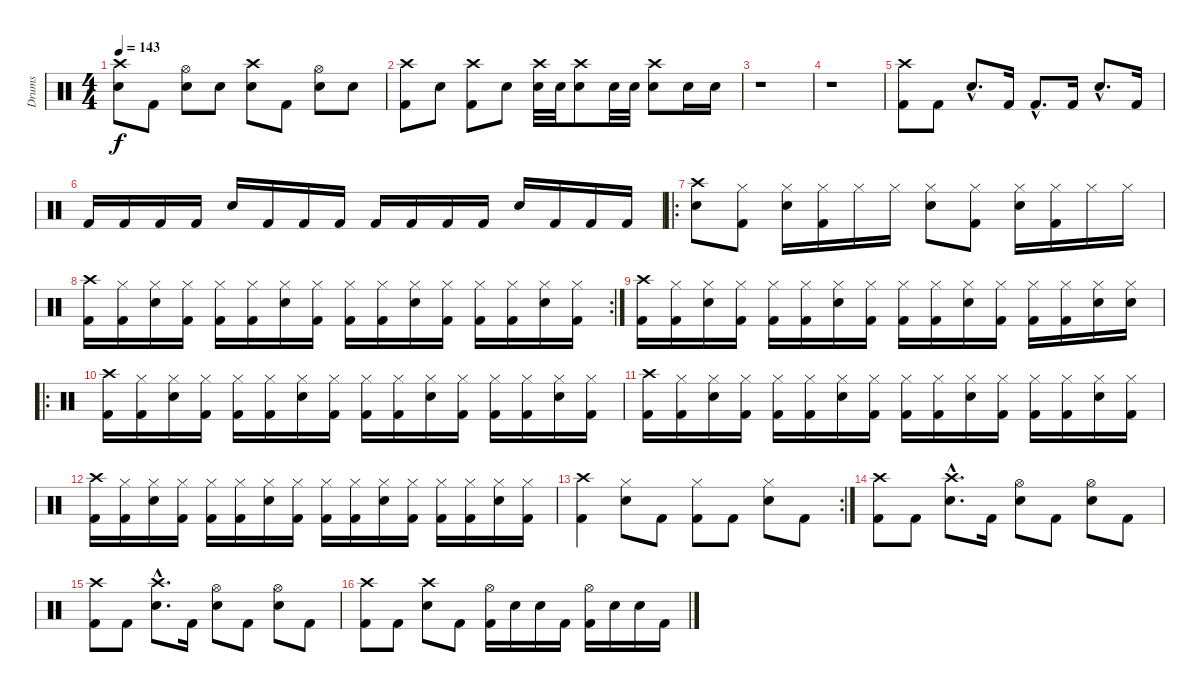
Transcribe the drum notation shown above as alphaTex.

\track ("Drums" "Drums") {instrument percussion}
\staff {score}
\articulation defaults
\ts (4 4)
\tempo 143
\clef neutral
\ks c
("Crash high (hit)" "Electric Snare (hit)").8{dy f} "Kick (hit) 2".8 ("Hi-Hat (open)" "Electric Snare (hit)").8 "Electric Snare (hit)".8 ("Crash high (hit)" "Electric Snare (hit)").8 "Kick (hit) 2".8 ("Hi-Hat (open)" "Electric Snare (hit)").8 "Electric Snare (hit)".8 |
("Crash high (hit)" "Kick (hit) 2").8 "Electric Snare (hit)".8 ("Crash high (hit)" "Kick (hit) 2").8 "Electric Snare (hit)".8 ("Crash high (hit)" "Electric Snare (hit)").32 "Electric Snare (hit)".32 ("Crash high (hit)" "Electric Snare (hit)").8 "Electric Snare (hit)".32 "Electric Snare (hit)".32 ("Crash high (hit)" "Electric Snare (hit)").8 "Electric Snare (hit)".16 "Electric Snare (hit)".16 |
r.1 |
r.1 |
("Crash high (hit)" "Kick (hit) 2").8 "Kick (hit) 2".8 "Electric Snare (hit)"{hac}.8{d} "Kick (hit) 2".16 "Kick (hit) 2"{hac}.8{d} "Kick (hit) 2".16 "Electric Snare (hit)"{hac}.8{d} "Kick (hit) 2".16 |
"Kick (hit) 2".16 "Kick (hit) 2".16 "Kick (hit) 2".16 "Kick (hit) 2".16 "Electric Snare (hit)".16 "Kick (hit) 2".16 "Kick (hit) 2".16 "Kick (hit) 2".16 "Kick (hit) 2".16 "Kick (hit) 2".16 "Kick (hit) 2".16 "Kick (hit) 2".16 "Electric Snare (hit)".16 "Kick (hit) 2".16 "Kick (hit) 2".16 "Kick (hit) 2".16 |
\ro
("Crash high (hit)" "Electric Snare (hit)").8 ("Hi-Hat (closed)" "Kick (hit) 2").8 ("Hi-Hat (closed)" "Electric Snare (hit)").16 ("Hi-Hat (closed)" "Kick (hit) 2").16 "Hi-Hat (closed)".16 "Hi-Hat (closed)".16 ("Hi-Hat (closed)" "Electric Snare (hit)").8 ("Hi-Hat (closed)" "Kick (hit) 2").8 ("Hi-Hat (closed)" "Electric Snare (hit)").16 ("Hi-Hat (closed)" "Kick (hit) 2").16 "Hi-Hat (closed)".16 "Hi-Hat (closed)".16 |
\rc 2
("Crash high (hit)" "Kick (hit) 2").16 ("Hi-Hat (closed)" "Kick (hit) 2").16 ("Hi-Hat (closed)" "Electric Snare (hit)").16 ("Hi-Hat (closed)" "Kick (hit) 2").16 ("Hi-Hat (closed)" "Kick (hit) 2").16 ("Hi-Hat (closed)" "Kick (hit) 2").16 ("Hi-Hat (closed)" "Electric Snare (hit)").16 ("Hi-Hat (closed)" "Kick (hit) 2").16 ("Hi-Hat (closed)" "Kick (hit) 2").16 ("Hi-Hat (closed)" "Kick (hit) 2").16 ("Hi-Hat (closed)" "Electric Snare (hit)").16 ("Hi-Hat (closed)" "Kick (hit) 2").16 ("Hi-Hat (closed)" "Kick (hit) 2").16 ("Hi-Hat (closed)" "Kick (hit) 2").16 ("Hi-Hat (closed)" "Electric Snare (hit)").16 ("Hi-Hat (closed)" "Kick (hit) 2").16 |
("Crash high (hit)" "Kick (hit) 2").16 ("Hi-Hat (closed)" "Kick (hit) 2").16 ("Hi-Hat (closed)" "Electric Snare (hit)").16 ("Hi-Hat (closed)" "Kick (hit) 2").16 ("Hi-Hat (closed)" "Kick (hit) 2").16 ("Hi-Hat (closed)" "Kick (hit) 2").16 ("Hi-Hat (closed)" "Electric Snare (hit)").16 ("Hi-Hat (closed)" "Kick (hit) 2").16 ("Hi-Hat (closed)" "Kick (hit) 2").16 ("Hi-Hat (closed)" "Kick (hit) 2").16 ("Hi-Hat (closed)" "Electric Snare (hit)").16 ("Hi-Hat (closed)" "Kick (hit) 2").16 ("Hi-Hat (closed)" "Kick (hit) 2").16 ("Hi-Hat (closed)" "Kick (hit) 2").16 ("Hi-Hat (closed)" "Electric Snare (hit)").16 ("Hi-Hat (closed)" "Electric Snare (hit)").16 |
\ro
("Crash high (hit)" "Kick (hit) 2").16 ("Hi-Hat (closed)" "Kick (hit) 2").16 ("Hi-Hat (closed)" "Electric Snare (hit)").16 ("Hi-Hat (closed)" "Kick (hit) 2").16 ("Hi-Hat (closed)" "Kick (hit) 2").16 ("Hi-Hat (closed)" "Kick (hit) 2").16 ("Hi-Hat (closed)" "Electric Snare (hit)").16 ("Hi-Hat (closed)" "Kick (hit) 2").16 ("Hi-Hat (closed)" "Kick (hit) 2").16 ("Hi-Hat (closed)" "Kick (hit) 2").16 ("Hi-Hat (closed)" "Electric Snare (hit)").16 ("Hi-Hat (closed)" "Kick (hit) 2").16 ("Hi-Hat (closed)" "Kick (hit) 2").16 ("Hi-Hat (closed)" "Kick (hit) 2").16 ("Hi-Hat (closed)" "Electric Snare (hit)").16 ("Hi-Hat (closed)" "Kick (hit) 2").16 |
("Crash high (hit)" "Kick (hit) 2").16 ("Hi-Hat (closed)" "Kick (hit) 2").16 ("Hi-Hat (closed)" "Electric Snare (hit)").16 ("Hi-Hat (closed)" "Kick (hit) 2").16 ("Hi-Hat (closed)" "Kick (hit) 2").16 ("Hi-Hat (closed)" "Kick (hit) 2").16 ("Hi-Hat (closed)" "Electric Snare (hit)").16 ("Hi-Hat (closed)" "Kick (hit) 2").16 ("Hi-Hat (closed)" "Kick (hit) 2").16 ("Hi-Hat (closed)" "Kick (hit) 2").16 ("Hi-Hat (closed)" "Electric Snare (hit)").16 ("Hi-Hat (closed)" "Kick (hit) 2").16 ("Hi-Hat (closed)" "Kick (hit) 2").16 ("Hi-Hat (closed)" "Kick (hit) 2").16 ("Hi-Hat (closed)" "Electric Snare (hit)").16 ("Hi-Hat (closed)" "Kick (hit) 2").16 |
("Crash high (hit)" "Kick (hit) 2").16 ("Hi-Hat (closed)" "Kick (hit) 2").16 ("Hi-Hat (closed)" "Electric Snare (hit)").16 ("Hi-Hat (closed)" "Kick (hit) 2").16 ("Hi-Hat (closed)" "Kick (hit) 2").16 ("Hi-Hat (closed)" "Kick (hit) 2").16 ("Hi-Hat (closed)" "Electric Snare (hit)").16 ("Hi-Hat (closed)" "Kick (hit) 2").16 ("Hi-Hat (closed)" "Kick (hit) 2").16 ("Hi-Hat (closed)" "Kick (hit) 2").16 ("Hi-Hat (closed)" "Electric Snare (hit)").16 ("Hi-Hat (closed)" "Kick (hit) 2").16 ("Hi-Hat (closed)" "Kick (hit) 2").16 ("Hi-Hat (closed)" "Kick (hit) 2").16 ("Hi-Hat (closed)" "Electric Snare (hit)").16 ("Hi-Hat (closed)" "Kick (hit) 2").16 |
\rc 2
("Crash high (hit)" "Kick (hit) 2").4 ("Hi-Hat (closed)" "Electric Snare (hit)").8 "Kick (hit) 2".8 ("Hi-Hat (closed)" "Kick (hit) 2").8 "Kick (hit) 2".8 ("Hi-Hat (closed)" "Electric Snare (hit)").8 "Kick (hit) 2".8 |
("Crash high (hit)" "Kick (hit) 2").8 "Kick (hit) 2".8 ("Crash high (hit)"{hac} "Electric Snare (hit)"{hac}).8{d} "Kick (hit) 2".16 ("Hi-Hat (open)" "Electric Snare (hit)").8 "Kick (hit) 2".8 ("Hi-Hat (open)" "Electric Snare (hit)").8 "Kick (hit) 2".8 |
("Crash high (hit)" "Kick (hit) 2").8 "Kick (hit) 2".8 ("Crash high (hit)"{hac} "Electric Snare (hit)"{hac}).8{d} "Kick (hit) 2".16 ("Hi-Hat (open)" "Electric Snare (hit)").8 "Kick (hit) 2".8 ("Hi-Hat (open)" "Electric Snare (hit)").8 "Kick (hit) 2".8 |
("Crash high (hit)" "Kick (hit) 2").8 "Kick (hit) 2".8 ("Crash high (hit)" "Electric Snare (hit)").8 "Kick (hit) 2".8 ("Hi-Hat (open)" "Kick (hit) 2").16 "Electric Snare (hit)".16 "Electric Snare (hit)".16 "Kick (hit) 2".16 ("Hi-Hat (open)" "Kick (hit) 2").16 "Electric Snare (hit)".16 "Electric Snare (hit)".16 "Kick (hit) 2".16
